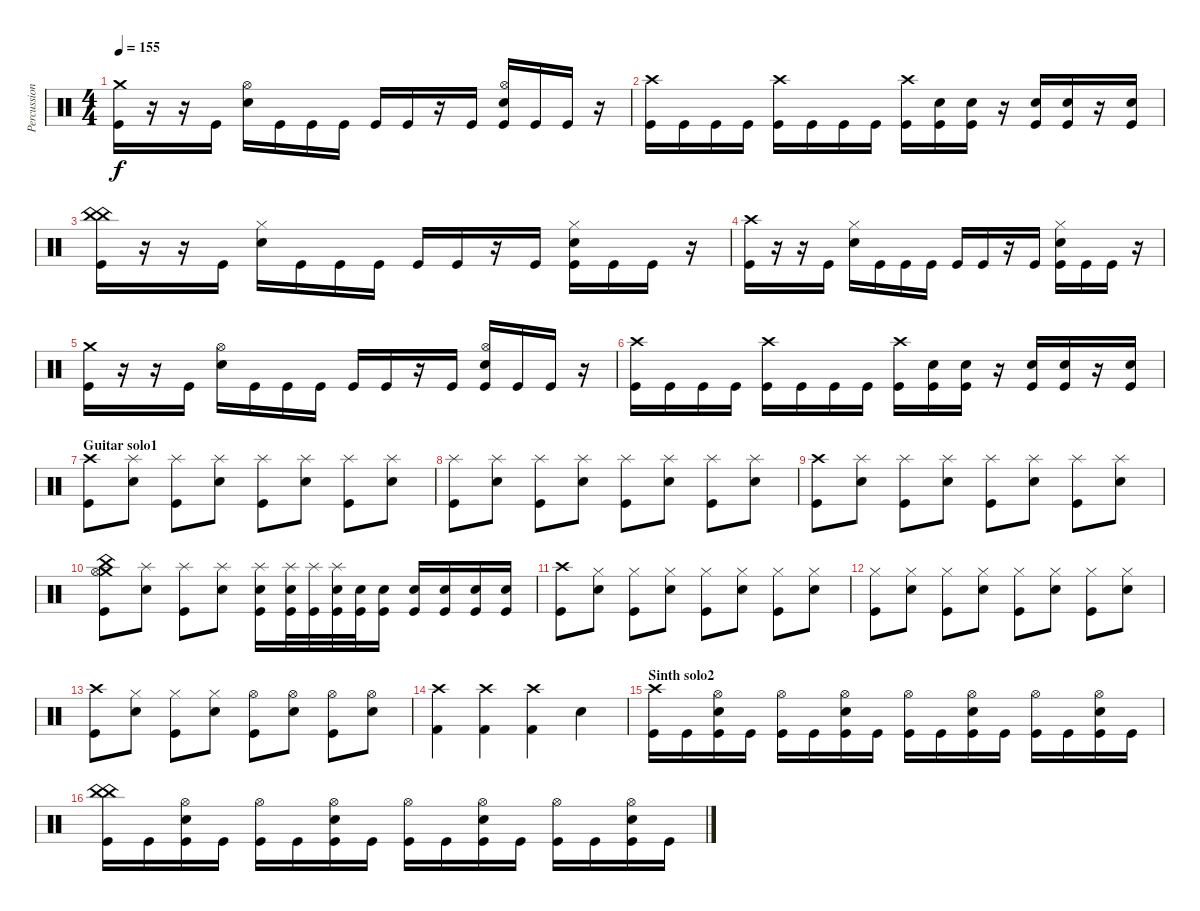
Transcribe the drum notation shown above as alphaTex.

\track ("Percussion" "Percussion") {instrument percussion}
\staff {score}
\articulation defaults
\ts (4 4)
\tempo 155
\clef neutral
\ks c
("Crash medium (hit)" "Kick (hit)").16{dy f} r.16 r.16 "Kick (hit)".16 ("Hi-Hat (open)" "Electric Snare (hit)").16 "Kick (hit)".16 "Kick (hit)".16 "Kick (hit)".16 "Kick (hit)".16 "Kick (hit)".16 r.16 "Kick (hit)".16 ("Hi-Hat (open)" "Electric Snare (hit)" "Kick (hit)").16 "Kick (hit)".16 "Kick (hit)".16 r.16 |
("Crash high (hit)" "Kick (hit)").16 "Kick (hit)".16 "Kick (hit)".16 "Kick (hit)".16 ("Crash high (hit)" "Kick (hit)").16 "Kick (hit)".16 "Kick (hit)".16 "Kick (hit)".16 ("Crash high (hit)" "Kick (hit)").16 ("Electric Snare (hit)" "Kick (hit)").16 ("Electric Snare (hit)" "Kick (hit)").16 r.16 ("Electric Snare (hit)" "Kick (hit)").16 ("Electric Snare (hit)" "Kick (hit)").16 r.16 ("Electric Snare (hit)" "Kick (hit)").16 |
\section ("" "")
("China (hit)" "China (hit)" "Kick (hit)").16 r.16 r.16 "Kick (hit)".16 ("Hi-Hat (closed)" "Electric Snare (hit)").16 "Kick (hit)".16 "Kick (hit)".16 "Kick (hit)".16 "Kick (hit)".16 "Kick (hit)".16 r.16 "Kick (hit)".16 ("Hi-Hat (closed)" "Electric Snare (hit)" "Kick (hit)").16 "Kick (hit)".16 "Kick (hit)".16 r.16 |
\section ("" "")
("Crash high (hit)" "Kick (hit)").16 r.16 r.16 "Kick (hit)".16 ("Hi-Hat (closed)" "Electric Snare (hit)").16 "Kick (hit)".16 "Kick (hit)".16 "Kick (hit)".16 "Kick (hit)".16 "Kick (hit)".16 r.16 "Kick (hit)".16 ("Hi-Hat (closed)" "Electric Snare (hit)" "Kick (hit)").16 "Kick (hit)".16 "Kick (hit)".16 r.16 |
("Crash medium (hit)" "Kick (hit)").16 r.16 r.16 "Kick (hit)".16 ("Hi-Hat (open)" "Electric Snare (hit)").16 "Kick (hit)".16 "Kick (hit)".16 "Kick (hit)".16 "Kick (hit)".16 "Kick (hit)".16 r.16 "Kick (hit)".16 ("Hi-Hat (open)" "Electric Snare (hit)" "Kick (hit)").16 "Kick (hit)".16 "Kick (hit)".16 r.16 |
("Crash high (hit)" "Kick (hit)").16 "Kick (hit)".16 "Kick (hit)".16 "Kick (hit)".16 ("Crash high (hit)" "Kick (hit)").16 "Kick (hit)".16 "Kick (hit)".16 "Kick (hit)".16 ("Crash high (hit)" "Kick (hit)").16 ("Electric Snare (hit)" "Kick (hit)").16 ("Electric Snare (hit)" "Kick (hit)").16 r.16 ("Electric Snare (hit)" "Kick (hit)").16 ("Electric Snare (hit)" "Kick (hit)").16 r.16 ("Electric Snare (hit)" "Kick (hit)").16 |
\section ("" "Guitar solo1")
("Crash high (hit)" "Kick (hit)").8 ("Splash (hit)" "Electric Snare (hit)").8 ("Splash (hit)" "Kick (hit)").8 ("Splash (hit)" "Electric Snare (hit)").8 ("Splash (hit)" "Kick (hit)").8 ("Splash (hit)" "Electric Snare (hit)").8 ("Splash (hit)" "Kick (hit)").8 ("Splash (hit)" "Electric Snare (hit)").8 |
("Splash (hit)" "Kick (hit)").8 ("Splash (hit)" "Electric Snare (hit)").8 ("Splash (hit)" "Kick (hit)").8 ("Splash (hit)" "Electric Snare (hit)").8 ("Splash (hit)" "Kick (hit)").8 ("Splash (hit)" "Electric Snare (hit)").8 ("Splash (hit)" "Kick (hit)").8 ("Splash (hit)" "Electric Snare (hit)").8 |
("Crash high (hit)" "Kick (hit)").8 ("Splash (hit)" "Electric Snare (hit)").8 ("Splash (hit)" "Kick (hit)").8 ("Splash (hit)" "Electric Snare (hit)").8 ("Splash (hit)" "Kick (hit)").8 ("Splash (hit)" "Electric Snare (hit)").8 ("Splash (hit)" "Kick (hit)").8 ("Splash (hit)" "Electric Snare (hit)").8 |
("China (hit)" "Crash medium (hit)" "Hi-Hat (open)" "Kick (hit)").8 ("Splash (hit)" "Electric Snare (hit)").8 ("Splash (hit)" "Kick (hit)").8 ("Splash (hit)" "Electric Snare (hit)").8 ("Splash (hit)" "Electric Snare (hit)" "Kick (hit)").16 ("Splash (hit)" "Electric Snare (hit)" "Kick (hit)").32 ("Splash (hit)" "Kick (hit)").32 ("Splash (hit)" "Electric Snare (hit)" "Kick (hit)").32 ("Electric Snare (hit)" "Kick (hit)").32 ("Electric Snare (hit)" "Kick (hit)").16 ("Electric Snare (hit)" "Kick (hit)").16 ("Electric Snare (hit)" "Kick (hit)").16 ("Electric Snare (hit)" "Kick (hit)").16 ("Electric Snare (hit)" "Kick (hit)").16 |
("Crash high (hit)" "Kick (hit)").8 ("Hi-Hat (closed)" "Electric Snare (hit)").8 ("Hi-Hat (closed)" "Kick (hit)").8 ("Hi-Hat (closed)" "Electric Snare (hit)").8 ("Hi-Hat (closed)" "Kick (hit)").8 ("Hi-Hat (closed)" "Electric Snare (hit)").8 ("Hi-Hat (closed)" "Kick (hit)").8 ("Hi-Hat (closed)" "Electric Snare (hit)").8 |
("Hi-Hat (closed)" "Kick (hit)").8 ("Hi-Hat (closed)" "Electric Snare (hit)").8 ("Hi-Hat (closed)" "Kick (hit)").8 ("Hi-Hat (closed)" "Electric Snare (hit)").8 ("Hi-Hat (closed)" "Kick (hit)").8 ("Hi-Hat (closed)" "Electric Snare (hit)").8 ("Hi-Hat (closed)" "Kick (hit)").8 ("Hi-Hat (closed)" "Electric Snare (hit)").8 |
("Crash high (hit)" "Kick (hit)").8 ("Hi-Hat (closed)" "Electric Snare (hit)").8 ("Hi-Hat (closed)" "Kick (hit)").8 ("Hi-Hat (closed)" "Electric Snare (hit)").8 ("Hi-Hat (open)" "Kick (hit)").8 ("Hi-Hat (open)" "Electric Snare (hit)").8 ("Hi-Hat (open)" "Kick (hit)").8 ("Hi-Hat (open)" "Electric Snare (hit)").8 |
("Crash high (hit)" "Kick (hit) 2").4 ("Crash high (hit)" "Kick (hit) 2").4 ("Crash high (hit)" "Kick (hit) 2").4 "Electric Snare (hit)".4 |
\section ("" "Sinth solo2")
("Crash high (hit)" "Kick (hit)").16 "Kick (hit)".16 ("Hi-Hat (open)" "Electric Snare (hit)" "Kick (hit)").16 "Kick (hit)".16 ("Hi-Hat (open)" "Kick (hit)").16 "Kick (hit)".16 ("Hi-Hat (open)" "Electric Snare (hit)" "Kick (hit)").16 "Kick (hit)".16 ("Hi-Hat (open)" "Kick (hit)").16 "Kick (hit)".16 ("Hi-Hat (open)" "Electric Snare (hit)" "Kick (hit)").16 "Kick (hit)".16 ("Hi-Hat (open)" "Kick (hit)").16 "Kick (hit)".16 ("Hi-Hat (open)" "Electric Snare (hit)" "Kick (hit)").16 "Kick (hit)".16 |
("China (hit)" "China (hit)" "Kick (hit)").16 "Kick (hit)".16 ("Hi-Hat (open)" "Electric Snare (hit)" "Kick (hit)").16 "Kick (hit)".16 ("Hi-Hat (open)" "Kick (hit)").16 "Kick (hit)".16 ("Hi-Hat (open)" "Electric Snare (hit)" "Kick (hit)").16 "Kick (hit)".16 ("Hi-Hat (open)" "Kick (hit)").16 "Kick (hit)".16 ("Hi-Hat (open)" "Electric Snare (hit)" "Kick (hit)").16 "Kick (hit)".16 ("Hi-Hat (open)" "Kick (hit)").16 "Kick (hit)".16 ("Hi-Hat (open)" "Electric Snare (hit)" "Kick (hit)").16 "Kick (hit)".16
